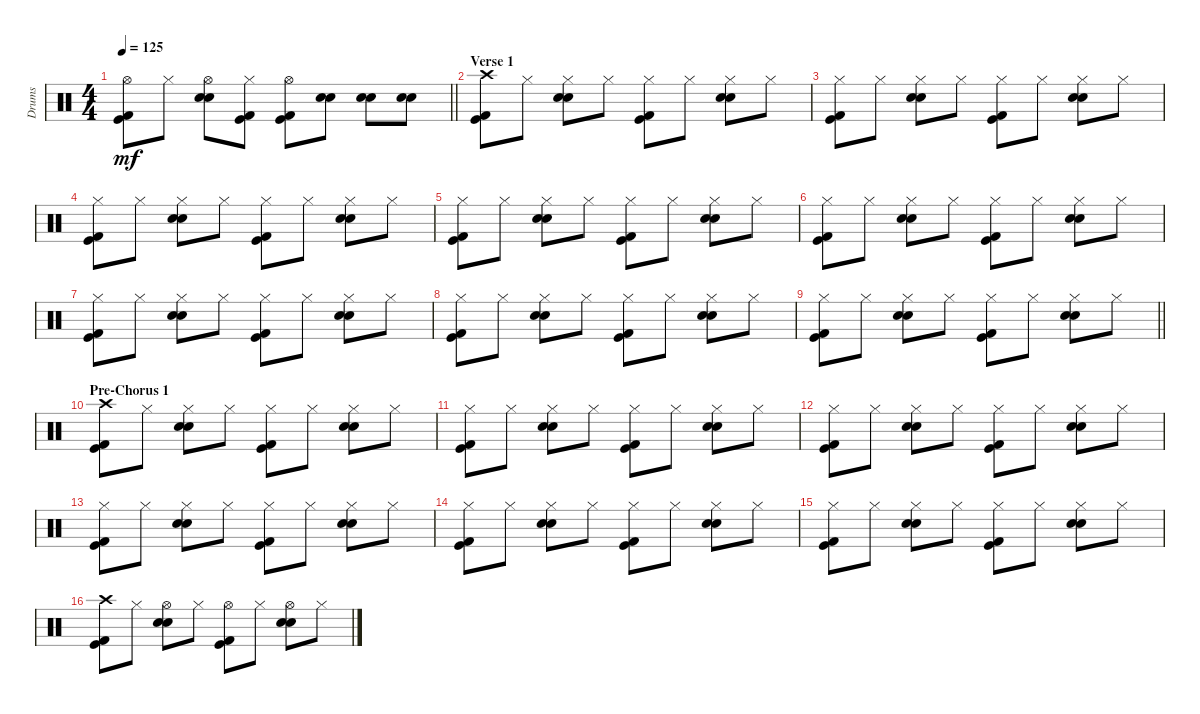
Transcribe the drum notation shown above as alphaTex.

\track ("Drums" "Drums") {instrument percussion}
\staff {score}
\articulation defaults
\ts (4 4)
\tempo 125
\clef neutral
\barLineRight lightlight
\ks c
("Hi-Hat (open)" "Kick (hit) 2" "Kick (hit)").8{dy mf} "Hi-Hat (closed)".8 ("Hi-Hat (open)" "Snare (hit) 2" "Electric Snare (hit)").8 ("Hi-Hat (closed)" "Kick (hit) 2" "Kick (hit)").8 ("Hi-Hat (open)" "Kick (hit) 2" "Kick (hit)").8 ("Snare (hit) 2" "Electric Snare (hit)").8 ("Snare (hit) 2" "Electric Snare (hit)").8 ("Snare (hit) 2" "Electric Snare (hit)").8 |
\section ("" "Verse 1")
("Crash high (hit)" "Kick (hit) 2" "Kick (hit)").8 "Hi-Hat (closed)".8 ("Hi-Hat (closed)" "Snare (hit) 2" "Electric Snare (hit)").8 "Hi-Hat (closed)".8 ("Hi-Hat (closed)" "Kick (hit) 2" "Kick (hit)").8 "Hi-Hat (closed)".8 ("Hi-Hat (closed)" "Snare (hit) 2" "Electric Snare (hit)").8 "Hi-Hat (closed)".8 |
("Hi-Hat (closed)" "Kick (hit) 2" "Kick (hit)").8 "Hi-Hat (closed)".8 ("Hi-Hat (closed)" "Snare (hit) 2" "Electric Snare (hit)").8 "Hi-Hat (closed)".8 ("Hi-Hat (closed)" "Kick (hit) 2" "Kick (hit)").8 "Hi-Hat (closed)".8 ("Hi-Hat (closed)" "Snare (hit) 2" "Electric Snare (hit)").8 "Hi-Hat (closed)".8 |
("Hi-Hat (closed)" "Kick (hit) 2" "Kick (hit)").8 "Hi-Hat (closed)".8 ("Hi-Hat (closed)" "Snare (hit) 2" "Electric Snare (hit)").8 "Hi-Hat (closed)".8 ("Hi-Hat (closed)" "Kick (hit) 2" "Kick (hit)").8 "Hi-Hat (closed)".8 ("Hi-Hat (closed)" "Snare (hit) 2" "Electric Snare (hit)").8 "Hi-Hat (closed)".8 |
("Hi-Hat (closed)" "Kick (hit) 2" "Kick (hit)").8 "Hi-Hat (closed)".8 ("Hi-Hat (closed)" "Snare (hit) 2" "Electric Snare (hit)").8 "Hi-Hat (closed)".8 ("Hi-Hat (closed)" "Kick (hit) 2" "Kick (hit)").8 "Hi-Hat (closed)".8 ("Hi-Hat (closed)" "Snare (hit) 2" "Electric Snare (hit)").8 "Hi-Hat (closed)".8 |
("Hi-Hat (closed)" "Kick (hit) 2" "Kick (hit)").8 "Hi-Hat (closed)".8 ("Hi-Hat (closed)" "Snare (hit) 2" "Electric Snare (hit)").8 "Hi-Hat (closed)".8 ("Hi-Hat (closed)" "Kick (hit) 2" "Kick (hit)").8 "Hi-Hat (closed)".8 ("Hi-Hat (closed)" "Snare (hit) 2" "Electric Snare (hit)").8 "Hi-Hat (closed)".8 |
("Hi-Hat (closed)" "Kick (hit) 2" "Kick (hit)").8 "Hi-Hat (closed)".8 ("Hi-Hat (closed)" "Snare (hit) 2" "Electric Snare (hit)").8 "Hi-Hat (closed)".8 ("Hi-Hat (closed)" "Kick (hit) 2" "Kick (hit)").8 "Hi-Hat (closed)".8 ("Hi-Hat (closed)" "Snare (hit) 2" "Electric Snare (hit)").8 "Hi-Hat (closed)".8 |
("Hi-Hat (closed)" "Kick (hit) 2" "Kick (hit)").8 "Hi-Hat (closed)".8 ("Hi-Hat (closed)" "Snare (hit) 2" "Electric Snare (hit)").8 "Hi-Hat (closed)".8 ("Hi-Hat (closed)" "Kick (hit) 2" "Kick (hit)").8 "Hi-Hat (closed)".8 ("Hi-Hat (closed)" "Snare (hit) 2" "Electric Snare (hit)").8 "Hi-Hat (closed)".8 |
\barLineRight lightlight
("Hi-Hat (closed)" "Kick (hit) 2" "Kick (hit)").8 "Hi-Hat (closed)".8 ("Hi-Hat (closed)" "Snare (hit) 2" "Electric Snare (hit)").8 "Hi-Hat (closed)".8 ("Hi-Hat (closed)" "Kick (hit) 2" "Kick (hit)").8 "Hi-Hat (closed)".8 ("Hi-Hat (closed)" "Snare (hit) 2" "Electric Snare (hit)").8 "Hi-Hat (closed)".8 |
\section ("" "Pre-Chorus 1")
("Crash high (hit)" "Kick (hit) 2" "Kick (hit)").8 "Hi-Hat (closed)".8 ("Hi-Hat (closed)" "Snare (hit) 2" "Electric Snare (hit)").8 "Hi-Hat (closed)".8 ("Hi-Hat (closed)" "Kick (hit) 2" "Kick (hit)").8 "Hi-Hat (closed)".8 ("Hi-Hat (closed)" "Snare (hit) 2" "Electric Snare (hit)").8 "Hi-Hat (closed)".8 |
("Hi-Hat (closed)" "Kick (hit) 2" "Kick (hit)").8 "Hi-Hat (closed)".8 ("Hi-Hat (closed)" "Snare (hit) 2" "Electric Snare (hit)").8 "Hi-Hat (closed)".8 ("Hi-Hat (closed)" "Kick (hit) 2" "Kick (hit)").8 "Hi-Hat (closed)".8 ("Hi-Hat (closed)" "Snare (hit) 2" "Electric Snare (hit)").8 "Hi-Hat (closed)".8 |
("Hi-Hat (closed)" "Kick (hit) 2" "Kick (hit)").8 "Hi-Hat (closed)".8 ("Hi-Hat (closed)" "Snare (hit) 2" "Electric Snare (hit)").8 "Hi-Hat (closed)".8 ("Hi-Hat (closed)" "Kick (hit) 2" "Kick (hit)").8 "Hi-Hat (closed)".8 ("Hi-Hat (closed)" "Snare (hit) 2" "Electric Snare (hit)").8 "Hi-Hat (closed)".8 |
("Hi-Hat (closed)" "Kick (hit) 2" "Kick (hit)").8 "Hi-Hat (closed)".8 ("Hi-Hat (closed)" "Snare (hit) 2" "Electric Snare (hit)").8 "Hi-Hat (closed)".8 ("Hi-Hat (closed)" "Kick (hit) 2" "Kick (hit)").8 "Hi-Hat (closed)".8 ("Hi-Hat (closed)" "Snare (hit) 2" "Electric Snare (hit)").8 "Hi-Hat (closed)".8 |
("Hi-Hat (closed)" "Kick (hit) 2" "Kick (hit)").8 "Hi-Hat (closed)".8 ("Hi-Hat (closed)" "Snare (hit) 2" "Electric Snare (hit)").8 "Hi-Hat (closed)".8 ("Hi-Hat (closed)" "Kick (hit) 2" "Kick (hit)").8 "Hi-Hat (closed)".8 ("Hi-Hat (closed)" "Snare (hit) 2" "Electric Snare (hit)").8 "Hi-Hat (closed)".8 |
("Hi-Hat (closed)" "Kick (hit) 2" "Kick (hit)").8 "Hi-Hat (closed)".8 ("Hi-Hat (closed)" "Snare (hit) 2" "Electric Snare (hit)").8 "Hi-Hat (closed)".8 ("Hi-Hat (closed)" "Kick (hit) 2" "Kick (hit)").8 "Hi-Hat (closed)".8 ("Hi-Hat (closed)" "Snare (hit) 2" "Electric Snare (hit)").8 "Hi-Hat (closed)".8 |
("Crash high (hit)" "Kick (hit) 2" "Kick (hit)").8 "Hi-Hat (closed)".8 ("Hi-Hat (open)" "Snare (hit) 2" "Electric Snare (hit)").8 "Hi-Hat (closed)".8 ("Hi-Hat (open)" "Kick (hit) 2" "Kick (hit)").8 "Hi-Hat (closed)".8 ("Hi-Hat (open)" "Snare (hit) 2" "Electric Snare (hit)").8 "Hi-Hat (closed)".8
